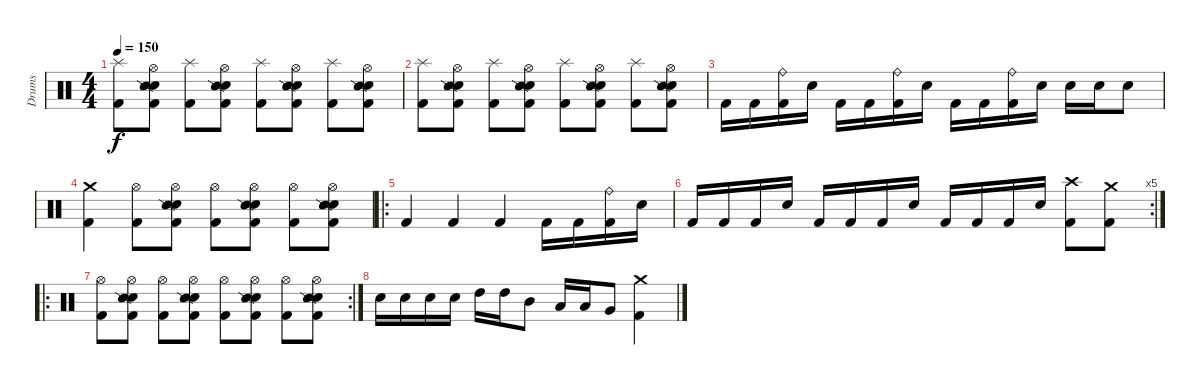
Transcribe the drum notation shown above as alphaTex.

\track ("Drums" "Drums") {instrument percussion}
\staff {score}
\articulation defaults
\ts (4 4)
\tempo 150
\clef neutral
\ks c
("Splash (hit)" "Kick (hit) 2").8{dy f} ("Hi-Hat (open)" "Electric Snare (hit)" "Snare (side stick) 2" "Kick (hit) 2").8 ("Splash (hit)" "Kick (hit) 2").8 ("Hi-Hat (open)" "Electric Snare (hit)" "Snare (side stick) 2" "Kick (hit) 2").8 ("Splash (hit)" "Kick (hit) 2").8 ("Hi-Hat (open)" "Electric Snare (hit)" "Snare (side stick) 2" "Kick (hit) 2").8 ("Splash (hit)" "Kick (hit) 2").8 ("Hi-Hat (open)" "Electric Snare (hit)" "Snare (side stick) 2" "Kick (hit) 2").8 |
("Splash (hit)" "Kick (hit) 2").8 ("Hi-Hat (open)" "Electric Snare (hit)" "Snare (side stick) 2" "Kick (hit) 2").8 ("Splash (hit)" "Kick (hit) 2").8 ("Hi-Hat (open)" "Electric Snare (hit)" "Snare (side stick) 2" "Kick (hit) 2").8 ("Splash (hit)" "Kick (hit) 2").8 ("Hi-Hat (open)" "Electric Snare (hit)" "Snare (side stick) 2" "Kick (hit) 2").8 ("Splash (hit)" "Kick (hit) 2").8 ("Hi-Hat (open)" "Electric Snare (hit)" "Snare (side stick) 2" "Kick (hit) 2").8 |
"Kick (hit) 2".16 "Kick (hit) 2".16 ("Ride (bell)" "Kick (hit) 2").16 "Electric Snare (hit)".16 "Kick (hit) 2".16 "Kick (hit) 2".16 ("Ride (bell)" "Kick (hit) 2").16 "Electric Snare (hit)".16 "Kick (hit) 2".16 "Kick (hit) 2".16 ("Ride (bell)" "Kick (hit) 2").16 "Electric Snare (hit)".16 "Electric Snare (hit)".16 "Electric Snare (hit)".16 "Electric Snare (hit)".8 |
("Crash medium (hit)" "Kick (hit) 2").4 ("Hi-Hat (open)" "Kick (hit) 2").8 ("Hi-Hat (open)" "Electric Snare (hit)" "Snare (side stick) 2" "Kick (hit) 2").8 ("Hi-Hat (open)" "Kick (hit) 2").8 ("Hi-Hat (open)" "Electric Snare (hit)" "Snare (side stick) 2" "Kick (hit) 2").8 ("Hi-Hat (open)" "Kick (hit) 2").8 ("Hi-Hat (open)" "Electric Snare (hit)" "Snare (side stick) 2" "Kick (hit) 2").8 |
\ro "Kick (hit) 2".4 "Kick (hit) 2".4 "Kick (hit) 2".4 "Kick (hit) 2".16 "Kick (hit) 2".16
("Ride (bell)" "Kick (hit) 2").16 "Electric Snare (hit)".16 |
\rc 5 "Kick (hit) 2".16 "Kick (hit) 2".16 "Kick (hit) 2".16 "Electric Snare (hit)".16 "Kick (hit) 2".16 "Kick (hit) 2".16 "Kick (hit) 2".16 "Electric Snare (hit)".16 "Kick (hit) 2".16 "Kick (hit) 2".16 "Kick (hit) 2".16 "Electric Snare (hit)".16
("Crash high (hit)" "Kick (hit) 2").8 ("Crash medium (hit)" "Kick (hit) 2").8 |
\ro
\rc 2
("Hi-Hat (open)" "Kick (hit) 2").8 ("Hi-Hat (open)" "Electric Snare (hit)" "Snare (side stick) 2" "Kick (hit) 2").8 ("Hi-Hat (open)" "Kick (hit) 2").8 ("Hi-Hat (open)" "Electric Snare (hit)" "Snare (side stick) 2" "Kick (hit) 2").8 ("Hi-Hat (open)" "Kick (hit) 2").8 ("Hi-Hat (open)" "Electric Snare (hit)" "Snare (side stick) 2" "Kick (hit) 2").8 ("Hi-Hat (open)" "Kick (hit) 2").8 ("Hi-Hat (open)" "Electric Snare (hit)" "Snare (side stick) 2" "Kick (hit) 2").8 |
"Electric Snare (hit)".16 "Electric Snare (hit)".16 "Electric Snare (hit)".16 "Electric Snare (hit)".16 "High Tom (hit)".16 "High Tom (hit)".16 "Mid Tom (hit)".8 "Low Tom (hit)".16 "Low Tom (hit)".16 "Very Low Tom (hit)".8 ("Crash medium (hit)" "Kick (hit) 2").4
